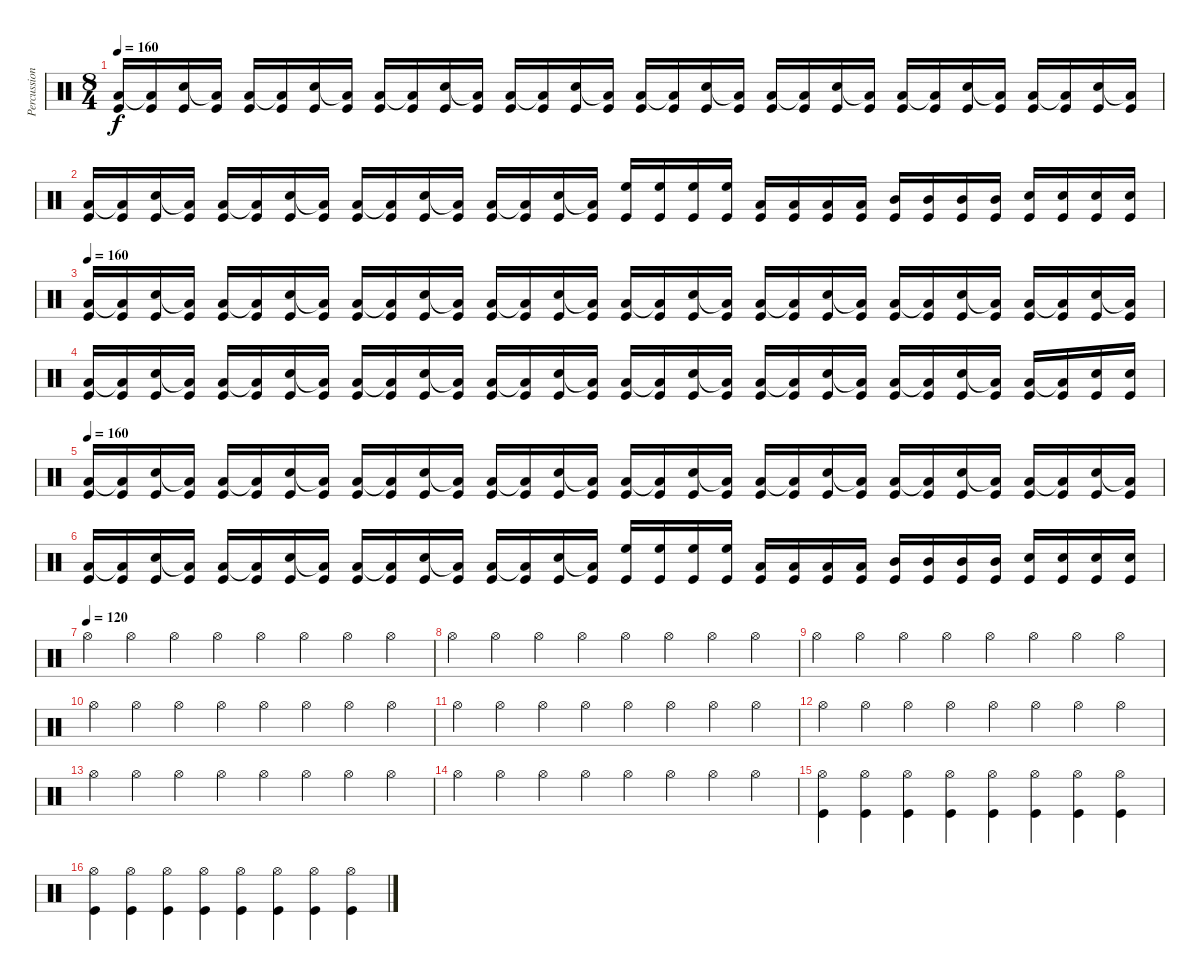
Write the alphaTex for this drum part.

\track ("Percussioni" "Percussion") {instrument percussion}
\staff {score}
\articulation defaults
\ts (8 4)
\tempo 160
\clef neutral
\ks c
("Low Tom (hit)" "Kick (hit)").16{dy f} ("Low Tom (hit)"{t} "Kick (hit)").16 ("Snare (hit) 2" "Kick (hit)").16 ("Low Tom (hit)"{t} "Kick (hit)").16 ("Low Tom (hit)" "Kick (hit)").16 ("Low Tom (hit)"{t} "Kick (hit)").16 ("Snare (hit) 2" "Kick (hit)").16 ("Low Tom (hit)"{t} "Kick (hit)").16 ("Low Tom (hit)" "Kick (hit)").16 ("Low Tom (hit)"{t} "Kick (hit)").16 ("Snare (hit) 2" "Kick (hit)").16 ("Low Tom (hit)"{t} "Kick (hit)").16 ("Low Tom (hit)" "Kick (hit)").16 ("Low Tom (hit)"{t} "Kick (hit)").16 ("Snare (hit) 2" "Kick (hit)").16 ("Low Tom (hit)"{t} "Kick (hit)").16 ("Low Tom (hit)" "Kick (hit)").16 ("Low Tom (hit)"{t} "Kick (hit)").16 ("Snare (hit) 2" "Kick (hit)").16 ("Low Tom (hit)"{t} "Kick (hit)").16 ("Low Tom (hit)" "Kick (hit)").16 ("Low Tom (hit)"{t} "Kick (hit)").16 ("Snare (hit) 2" "Kick (hit)").16 ("Low Tom (hit)"{t} "Kick (hit)").16 ("Low Tom (hit)" "Kick (hit)").16 ("Low Tom (hit)"{t} "Kick (hit)").16 ("Snare (hit) 2" "Kick (hit)").16 ("Low Tom (hit)"{t} "Kick (hit)").16 ("Low Tom (hit)" "Kick (hit)").16 ("Low Tom (hit)"{t} "Kick (hit)").16 ("Snare (hit) 2" "Kick (hit)").16 ("Low Tom (hit)"{t} "Kick (hit)").16 |
("Low Tom (hit)" "Kick (hit)").16 ("Low Tom (hit)"{t} "Kick (hit)").16 ("Snare (hit) 2" "Kick (hit)").16 ("Low Tom (hit)"{t} "Kick (hit)").16 ("Low Tom (hit)" "Kick (hit)").16 ("Low Tom (hit)"{t} "Kick (hit)").16 ("Snare (hit) 2" "Kick (hit)").16 ("Low Tom (hit)"{t} "Kick (hit)").16 ("Low Tom (hit)" "Kick (hit)").16 ("Low Tom (hit)"{t} "Kick (hit)").16 ("Snare (hit) 2" "Kick (hit)").16 ("Low Tom (hit)"{t} "Kick (hit)").16 ("Low Tom (hit)" "Kick (hit)").16 ("Low Tom (hit)"{t} "Kick (hit)").16 ("Snare (hit) 2" "Kick (hit)").16 ("Low Tom (hit)"{t} "Kick (hit)").16 ("High Floor Tom (hit)" "Kick (hit)").16 ("High Floor Tom (hit)" "Kick (hit)").16 ("High Floor Tom (hit)" "Kick (hit)").16 ("High Floor Tom (hit)" "Kick (hit)").16 ("Low Tom (hit)" "Kick (hit)").16 ("Low Tom (hit)" "Kick (hit)").16 ("Low Tom (hit)" "Kick (hit)").16 ("Low Tom (hit)" "Kick (hit)").16 ("Mid Tom (hit)" "Kick (hit)").16 ("Mid Tom (hit)" "Kick (hit)").16 ("Mid Tom (hit)" "Kick (hit)").16 ("Mid Tom (hit)" "Kick (hit)").16 ("Snare (hit) 2" "Kick (hit)").16 ("Snare (hit) 2" "Kick (hit)").16 ("Snare (hit) 2" "Kick (hit)").16 ("Snare (hit) 2" "Kick (hit)").16 |
\tempo 160
("Low Tom (hit)" "Kick (hit)").16 ("Low Tom (hit)"{t} "Kick (hit)").16 ("Snare (hit) 2" "Kick (hit)").16 ("Low Tom (hit)"{t} "Kick (hit)").16 ("Low Tom (hit)" "Kick (hit)").16 ("Low Tom (hit)"{t} "Kick (hit)").16 ("Snare (hit) 2" "Kick (hit)").16 ("Low Tom (hit)"{t} "Kick (hit)").16 ("Low Tom (hit)" "Kick (hit)").16 ("Low Tom (hit)"{t} "Kick (hit)").16 ("Snare (hit) 2" "Kick (hit)").16 ("Low Tom (hit)"{t} "Kick (hit)").16 ("Low Tom (hit)" "Kick (hit)").16 ("Low Tom (hit)"{t} "Kick (hit)").16 ("Snare (hit) 2" "Kick (hit)").16 ("Low Tom (hit)"{t} "Kick (hit)").16 ("Low Tom (hit)" "Kick (hit)").16 ("Low Tom (hit)"{t} "Kick (hit)").16 ("Snare (hit) 2" "Kick (hit)").16 ("Low Tom (hit)"{t} "Kick (hit)").16 ("Low Tom (hit)" "Kick (hit)").16 ("Low Tom (hit)"{t} "Kick (hit)").16 ("Snare (hit) 2" "Kick (hit)").16 ("Low Tom (hit)"{t} "Kick (hit)").16 ("Low Tom (hit)" "Kick (hit)").16 ("Low Tom (hit)"{t} "Kick (hit)").16 ("Snare (hit) 2" "Kick (hit)").16 ("Low Tom (hit)"{t} "Kick (hit)").16 ("Low Tom (hit)" "Kick (hit)").16 ("Low Tom (hit)"{t} "Kick (hit)").16 ("Snare (hit) 2" "Kick (hit)").16 ("Low Tom (hit)"{t} "Kick (hit)").16 |
("Low Tom (hit)" "Kick (hit)").16 ("Low Tom (hit)"{t} "Kick (hit)").16 ("Snare (hit) 2" "Kick (hit)").16 ("Low Tom (hit)"{t} "Kick (hit)").16 ("Low Tom (hit)" "Kick (hit)").16 ("Low Tom (hit)"{t} "Kick (hit)").16 ("Snare (hit) 2" "Kick (hit)").16 ("Low Tom (hit)"{t} "Kick (hit)").16 ("Low Tom (hit)" "Kick (hit)").16 ("Low Tom (hit)"{t} "Kick (hit)").16 ("Snare (hit) 2" "Kick (hit)").16 ("Low Tom (hit)"{t} "Kick (hit)").16 ("Low Tom (hit)" "Kick (hit)").16 ("Low Tom (hit)"{t} "Kick (hit)").16 ("Snare (hit) 2" "Kick (hit)").16 ("Low Tom (hit)"{t} "Kick (hit)").16 ("Low Tom (hit)" "Kick (hit)").16 ("Low Tom (hit)"{t} "Kick (hit)").16 ("Snare (hit) 2" "Kick (hit)").16 ("Low Tom (hit)"{t} "Kick (hit)").16 ("Low Tom (hit)" "Kick (hit)").16 ("Low Tom (hit)"{t} "Kick (hit)").16 ("Snare (hit) 2" "Kick (hit)").16 ("Low Tom (hit)"{t} "Kick (hit)").16 ("Low Tom (hit)" "Kick (hit)").16 ("Low Tom (hit)"{t} "Kick (hit)").16 ("Snare (hit) 2" "Kick (hit)").16 ("Low Tom (hit)"{t} "Kick (hit)").16 ("Low Tom (hit)" "Kick (hit)").16 ("Low Tom (hit)"{t} "Kick (hit)").16 ("Snare (hit) 2" "Kick (hit)").16 ("Snare (hit) 2" "Kick (hit)").16 |
\tempo 160
("Low Tom (hit)" "Kick (hit)").16 ("Low Tom (hit)"{t} "Kick (hit)").16 ("Snare (hit) 2" "Kick (hit)").16 ("Low Tom (hit)"{t} "Kick (hit)").16 ("Low Tom (hit)" "Kick (hit)").16 ("Low Tom (hit)"{t} "Kick (hit)").16 ("Snare (hit) 2" "Kick (hit)").16 ("Low Tom (hit)"{t} "Kick (hit)").16 ("Low Tom (hit)" "Kick (hit)").16 ("Low Tom (hit)"{t} "Kick (hit)").16 ("Snare (hit) 2" "Kick (hit)").16 ("Low Tom (hit)"{t} "Kick (hit)").16 ("Low Tom (hit)" "Kick (hit)").16 ("Low Tom (hit)"{t} "Kick (hit)").16 ("Snare (hit) 2" "Kick (hit)").16 ("Low Tom (hit)"{t} "Kick (hit)").16 ("Low Tom (hit)" "Kick (hit)").16 ("Low Tom (hit)"{t} "Kick (hit)").16 ("Snare (hit) 2" "Kick (hit)").16 ("Low Tom (hit)"{t} "Kick (hit)").16 ("Low Tom (hit)" "Kick (hit)").16 ("Low Tom (hit)"{t} "Kick (hit)").16 ("Snare (hit) 2" "Kick (hit)").16 ("Low Tom (hit)"{t} "Kick (hit)").16 ("Low Tom (hit)" "Kick (hit)").16 ("Low Tom (hit)"{t} "Kick (hit)").16 ("Snare (hit) 2" "Kick (hit)").16 ("Low Tom (hit)"{t} "Kick (hit)").16 ("Low Tom (hit)" "Kick (hit)").16 ("Low Tom (hit)"{t} "Kick (hit)").16 ("Snare (hit) 2" "Kick (hit)").16 ("Low Tom (hit)"{t} "Kick (hit)").16 |
("Low Tom (hit)" "Kick (hit)").16 ("Low Tom (hit)"{t} "Kick (hit)").16 ("Snare (hit) 2" "Kick (hit)").16 ("Low Tom (hit)"{t} "Kick (hit)").16 ("Low Tom (hit)" "Kick (hit)").16 ("Low Tom (hit)"{t} "Kick (hit)").16 ("Snare (hit) 2" "Kick (hit)").16 ("Low Tom (hit)"{t} "Kick (hit)").16 ("Low Tom (hit)" "Kick (hit)").16 ("Low Tom (hit)"{t} "Kick (hit)").16 ("Snare (hit) 2" "Kick (hit)").16 ("Low Tom (hit)"{t} "Kick (hit)").16 ("Low Tom (hit)" "Kick (hit)").16 ("Low Tom (hit)"{t} "Kick (hit)").16 ("Snare (hit) 2" "Kick (hit)").16 ("Low Tom (hit)"{t} "Kick (hit)").16 ("High Floor Tom (hit)" "Kick (hit)").16 ("High Floor Tom (hit)" "Kick (hit)").16 ("High Floor Tom (hit)" "Kick (hit)").16 ("High Floor Tom (hit)" "Kick (hit)").16 ("Low Tom (hit)" "Kick (hit)").16 ("Low Tom (hit)" "Kick (hit)").16 ("Low Tom (hit)" "Kick (hit)").16 ("Low Tom (hit)" "Kick (hit)").16 ("Mid Tom (hit)" "Kick (hit)").16 ("Mid Tom (hit)" "Kick (hit)").16 ("Mid Tom (hit)" "Kick (hit)").16 ("Mid Tom (hit)" "Kick (hit)").16 ("Snare (hit) 2" "Kick (hit)").16 ("Snare (hit) 2" "Kick (hit)").16 ("Snare (hit) 2" "Kick (hit)").16 ("Snare (hit) 2" "Kick (hit)").16 |
\tempo (120)
"Hi-Hat (open)".4 "Hi-Hat (open)".4 "Hi-Hat (open)".4 "Hi-Hat (open)".4 "Hi-Hat (open)".4 "Hi-Hat (open)".4 "Hi-Hat (open)".4 "Hi-Hat (open)".4 |
"Hi-Hat (open)".4 "Hi-Hat (open)".4 "Hi-Hat (open)".4 "Hi-Hat (open)".4 "Hi-Hat (open)".4 "Hi-Hat (open)".4 "Hi-Hat (open)".4 "Hi-Hat (open)".4 |
"Hi-Hat (open)".4 "Hi-Hat (open)".4 "Hi-Hat (open)".4 "Hi-Hat (open)".4 "Hi-Hat (open)".4 "Hi-Hat (open)".4 "Hi-Hat (open)".4 "Hi-Hat (open)".4 |
"Hi-Hat (open)".4 "Hi-Hat (open)".4 "Hi-Hat (open)".4 "Hi-Hat (open)".4 "Hi-Hat (open)".4 "Hi-Hat (open)".4 "Hi-Hat (open)".4 "Hi-Hat (open)".4 |
"Hi-Hat (open)".4 "Hi-Hat (open)".4 "Hi-Hat (open)".4 "Hi-Hat (open)".4 "Hi-Hat (open)".4 "Hi-Hat (open)".4 "Hi-Hat (open)".4 "Hi-Hat (open)".4 |
"Hi-Hat (open)".4 "Hi-Hat (open)".4 "Hi-Hat (open)".4 "Hi-Hat (open)".4 "Hi-Hat (open)".4 "Hi-Hat (open)".4 "Hi-Hat (open)".4 "Hi-Hat (open)".4 |
"Hi-Hat (open)".4 "Hi-Hat (open)".4 "Hi-Hat (open)".4 "Hi-Hat (open)".4 "Hi-Hat (open)".4 "Hi-Hat (open)".4 "Hi-Hat (open)".4 "Hi-Hat (open)".4 |
"Hi-Hat (open)".4{volume 9} "Hi-Hat (open)".4 "Hi-Hat (open)".4 "Hi-Hat (open)".4{volume 5} "Hi-Hat (open)".4 "Hi-Hat (open)".4 "Hi-Hat (open)".4{volume 2} "Hi-Hat (open)".4 |
("Hi-Hat (open)" "Kick (hit)").4 ("Hi-Hat (open)" "Kick (hit)").4{volume 0} ("Hi-Hat (open)" "Kick (hit)").4 ("Hi-Hat (open)" "Kick (hit)").4 ("Hi-Hat (open)" "Kick (hit)").4 ("Hi-Hat (open)" "Kick (hit)").4 ("Hi-Hat (open)" "Kick (hit)").4 ("Hi-Hat (open)" "Kick (hit)").4 |
("Hi-Hat (open)" "Kick (hit)").4 ("Hi-Hat (open)" "Kick (hit)").4 ("Hi-Hat (open)" "Kick (hit)").4 ("Hi-Hat (open)" "Kick (hit)").4 ("Hi-Hat (open)" "Kick (hit)").4 ("Hi-Hat (open)" "Kick (hit)").4 ("Hi-Hat (open)" "Kick (hit)").4 ("Hi-Hat (open)" "Kick (hit)").4
